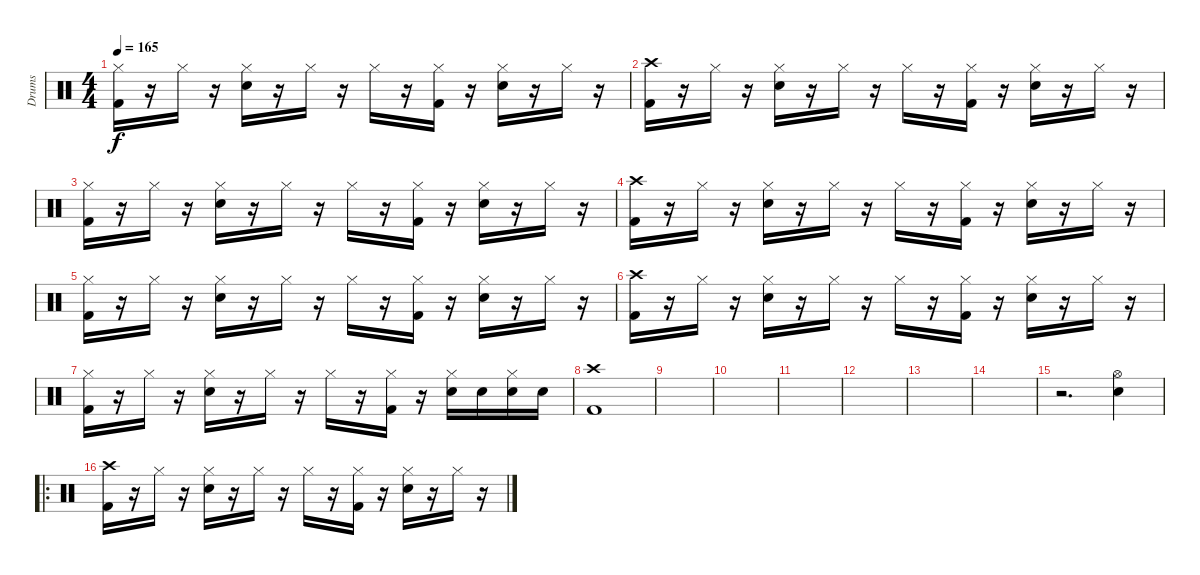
\track ("Drums" "Drums") {instrument percussion}
\staff {score}
\articulation defaults
\ts (4 4)
\tempo 165
\clef neutral
\ks c
("Kick (hit) 2" "Hi-Hat (closed)").16{dy f} r.16 "Hi-Hat (closed)".16 r.16 ("Hi-Hat (closed)" "Snare (hit) 2").16 r.16 "Hi-Hat (closed)".16 r.16 "Hi-Hat (closed)".16 r.16 ("Hi-Hat (closed)" "Kick (hit) 2").16 r.16 ("Hi-Hat (closed)" "Snare (hit) 2").16 r.16 "Hi-Hat (closed)".16 r.16 |
("Kick (hit) 2" "Crash high (hit)").16 r.16 "Hi-Hat (closed)".16 r.16 ("Hi-Hat (closed)" "Snare (hit) 2").16 r.16 "Hi-Hat (closed)".16 r.16 "Hi-Hat (closed)".16 r.16 ("Hi-Hat (closed)" "Kick (hit) 2").16 r.16 ("Hi-Hat (closed)" "Snare (hit) 2").16 r.16 "Hi-Hat (closed)".16 r.16 |
("Kick (hit) 2" "Hi-Hat (closed)").16 r.16 "Hi-Hat (closed)".16 r.16 ("Hi-Hat (closed)" "Snare (hit) 2").16 r.16 "Hi-Hat (closed)".16 r.16 "Hi-Hat (closed)".16 r.16 ("Hi-Hat (closed)" "Kick (hit) 2").16 r.16 ("Hi-Hat (closed)" "Snare (hit) 2").16 r.16 "Hi-Hat (closed)".16 r.16 |
("Kick (hit) 2" "Crash high (hit)").16 r.16 "Hi-Hat (closed)".16 r.16 ("Hi-Hat (closed)" "Snare (hit) 2").16 r.16 "Hi-Hat (closed)".16 r.16 "Hi-Hat (closed)".16 r.16 ("Hi-Hat (closed)" "Kick (hit) 2").16 r.16 ("Hi-Hat (closed)" "Snare (hit) 2").16 r.16 "Hi-Hat (closed)".16 r.16 |
("Kick (hit) 2" "Hi-Hat (closed)").16 r.16 "Hi-Hat (closed)".16 r.16 ("Hi-Hat (closed)" "Snare (hit) 2").16 r.16 "Hi-Hat (closed)".16 r.16 "Hi-Hat (closed)".16 r.16 ("Hi-Hat (closed)" "Kick (hit) 2").16 r.16 ("Hi-Hat (closed)" "Snare (hit) 2").16 r.16 "Hi-Hat (closed)".16 r.16 |
("Kick (hit) 2" "Crash high (hit)").16 r.16 "Hi-Hat (closed)".16 r.16 ("Hi-Hat (closed)" "Snare (hit) 2").16 r.16 "Hi-Hat (closed)".16 r.16 "Hi-Hat (closed)".16 r.16 ("Hi-Hat (closed)" "Kick (hit) 2").16 r.16 ("Hi-Hat (closed)" "Snare (hit) 2").16 r.16 "Hi-Hat (closed)".16 r.16 |
("Kick (hit) 2" "Hi-Hat (closed)").16 r.16 "Hi-Hat (closed)".16 r.16 ("Hi-Hat (closed)" "Snare (hit) 2").16 r.16 "Hi-Hat (closed)".16 r.16 "Hi-Hat (closed)".16 r.16 ("Hi-Hat (closed)" "Kick (hit) 2").16 r.16 ("Hi-Hat (closed)" "Snare (hit) 2").16 "Snare (hit) 2".16 ("Hi-Hat (closed)" "Snare (hit) 2").16 "Snare (hit) 2".16 |
("Kick (hit) 2" "Crash high (hit)").1 |
|
|
|
|
|
|
r.2{d} ("Snare (hit) 2" "Hi-Hat (open)").4 |
\ro
("Kick (hit) 2" "Crash high (hit)").16 r.16 "Hi-Hat (closed)".16 r.16 ("Hi-Hat (closed)" "Snare (hit) 2").16 r.16 "Hi-Hat (closed)".16 r.16 "Hi-Hat (closed)".16 r.16 ("Hi-Hat (closed)" "Kick (hit) 2").16 r.16 ("Hi-Hat (closed)" "Snare (hit) 2").16 r.16 "Hi-Hat (closed)".16 r.16
